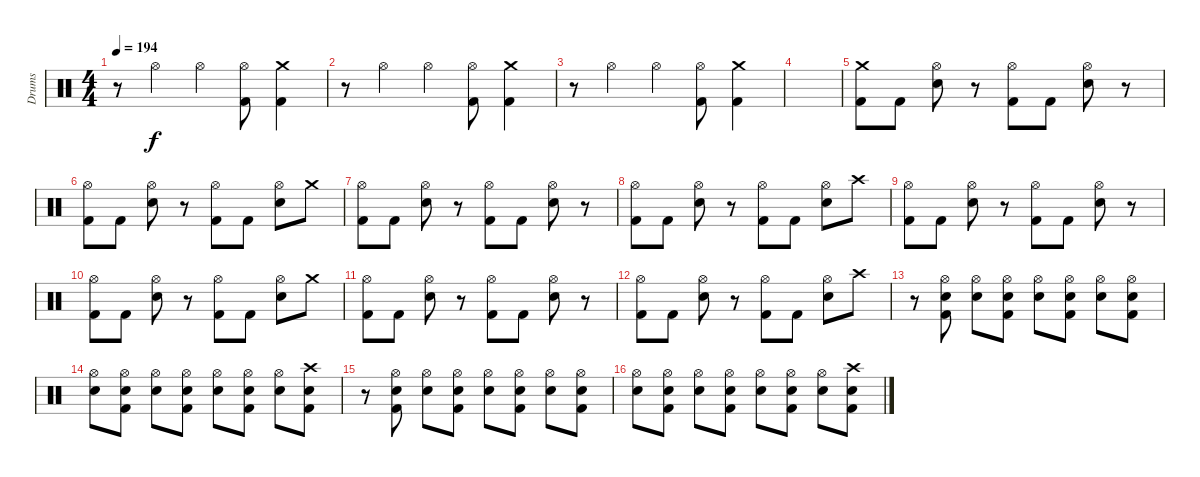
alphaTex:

\track ("Drums" "Drums") {instrument percussion}
\staff {score}
\articulation defaults
\ts (4 4)
\tempo 194
\clef neutral
\ks c
r.8{dy f} "Hi-Hat (open)".4 "Hi-Hat (open)".4 ("Hi-Hat (open)" "Kick (hit) 2").8 ("Crash medium (hit)" "Kick (hit) 2").4 |
r.8 "Hi-Hat (open)".4 "Hi-Hat (open)".4 ("Hi-Hat (open)" "Kick (hit) 2").8 ("Crash medium (hit)" "Kick (hit) 2").4 |
r.8 "Hi-Hat (open)".4 "Hi-Hat (open)".4 ("Hi-Hat (open)" "Kick (hit) 2").8 ("Crash medium (hit)" "Kick (hit) 2").4 |
|
("Crash medium (hit)" "Kick (hit) 2").8 "Kick (hit) 2".8 ("Hi-Hat (open)" "Electric Snare (hit)").8 r.8 ("Hi-Hat (open)" "Kick (hit) 2").8 "Kick (hit) 2".8 ("Hi-Hat (open)" "Electric Snare (hit)").8 r.8 |
("Hi-Hat (open)" "Kick (hit) 2").8 "Kick (hit) 2".8 ("Hi-Hat (open)" "Electric Snare (hit)").8 r.8 ("Hi-Hat (open)" "Kick (hit) 2").8 "Kick (hit) 2".8 ("Hi-Hat (open)" "Electric Snare (hit)").8 "Crash medium (hit)".8 |
("Hi-Hat (open)" "Kick (hit) 2").8 "Kick (hit) 2".8 ("Hi-Hat (open)" "Electric Snare (hit)").8 r.8 ("Hi-Hat (open)" "Kick (hit) 2").8 "Kick (hit) 2".8 ("Hi-Hat (open)" "Electric Snare (hit)").8 r.8 |
("Hi-Hat (open)" "Kick (hit) 2").8 "Kick (hit) 2".8 ("Hi-Hat (open)" "Electric Snare (hit)").8 r.8 ("Hi-Hat (open)" "Kick (hit) 2").8 "Kick (hit) 2".8 ("Hi-Hat (open)" "Electric Snare (hit)").8 "Crash high (hit)".8 |
("Hi-Hat (open)" "Kick (hit) 2").8 "Kick (hit) 2".8 ("Hi-Hat (open)" "Electric Snare (hit)").8 r.8 ("Hi-Hat (open)" "Kick (hit) 2").8 "Kick (hit) 2".8 ("Hi-Hat (open)" "Electric Snare (hit)").8 r.8 |
("Hi-Hat (open)" "Kick (hit) 2").8 "Kick (hit) 2".8 ("Hi-Hat (open)" "Electric Snare (hit)").8 r.8 ("Hi-Hat (open)" "Kick (hit) 2").8 "Kick (hit) 2".8 ("Hi-Hat (open)" "Electric Snare (hit)").8 "Crash medium (hit)".8 |
("Hi-Hat (open)" "Kick (hit) 2").8 "Kick (hit) 2".8 ("Hi-Hat (open)" "Electric Snare (hit)").8 r.8 ("Hi-Hat (open)" "Kick (hit) 2").8 "Kick (hit) 2".8 ("Hi-Hat (open)" "Electric Snare (hit)").8 r.8 |
("Hi-Hat (open)" "Kick (hit) 2").8 "Kick (hit) 2".8 ("Hi-Hat (open)" "Electric Snare (hit)").8 r.8 ("Hi-Hat (open)" "Kick (hit) 2").8 "Kick (hit) 2".8 ("Hi-Hat (open)" "Electric Snare (hit)").8 "Crash high (hit)".8 |
r.8 ("Hi-Hat (open)" "Electric Snare (hit)" "Kick (hit) 2").8 ("Hi-Hat (open)" "Electric Snare (hit)").8 ("Hi-Hat (open)" "Electric Snare (hit)" "Kick (hit) 2").8 ("Hi-Hat (open)" "Electric Snare (hit)").8 ("Hi-Hat (open)" "Electric Snare (hit)" "Kick (hit) 2").8 ("Hi-Hat (open)" "Electric Snare (hit)").8 ("Hi-Hat (open)" "Electric Snare (hit)" "Kick (hit) 2").8 |
("Hi-Hat (open)" "Electric Snare (hit)").8 ("Hi-Hat (open)" "Electric Snare (hit)" "Kick (hit) 2").8 ("Hi-Hat (open)" "Electric Snare (hit)").8 ("Hi-Hat (open)" "Electric Snare (hit)" "Kick (hit) 2").8 ("Hi-Hat (open)" "Electric Snare (hit)").8 ("Hi-Hat (open)" "Electric Snare (hit)" "Kick (hit) 2").8 ("Hi-Hat (open)" "Electric Snare (hit)").8 ("Crash high (hit)" "Electric Snare (hit)" "Kick (hit) 2").8 |
r.8 ("Hi-Hat (open)" "Electric Snare (hit)" "Kick (hit) 2").8 ("Hi-Hat (open)" "Electric Snare (hit)").8 ("Hi-Hat (open)" "Electric Snare (hit)" "Kick (hit) 2").8 ("Hi-Hat (open)" "Electric Snare (hit)").8 ("Hi-Hat (open)" "Electric Snare (hit)" "Kick (hit) 2").8 ("Hi-Hat (open)" "Electric Snare (hit)").8 ("Hi-Hat (open)" "Electric Snare (hit)" "Kick (hit) 2").8 |
("Hi-Hat (open)" "Electric Snare (hit)").8 ("Hi-Hat (open)" "Electric Snare (hit)" "Kick (hit) 2").8 ("Hi-Hat (open)" "Electric Snare (hit)").8 ("Hi-Hat (open)" "Electric Snare (hit)" "Kick (hit) 2").8 ("Hi-Hat (open)" "Electric Snare (hit)").8 ("Hi-Hat (open)" "Electric Snare (hit)" "Kick (hit) 2").8 ("Hi-Hat (open)" "Electric Snare (hit)").8 ("Crash high (hit)" "Electric Snare (hit)" "Kick (hit) 2").8
